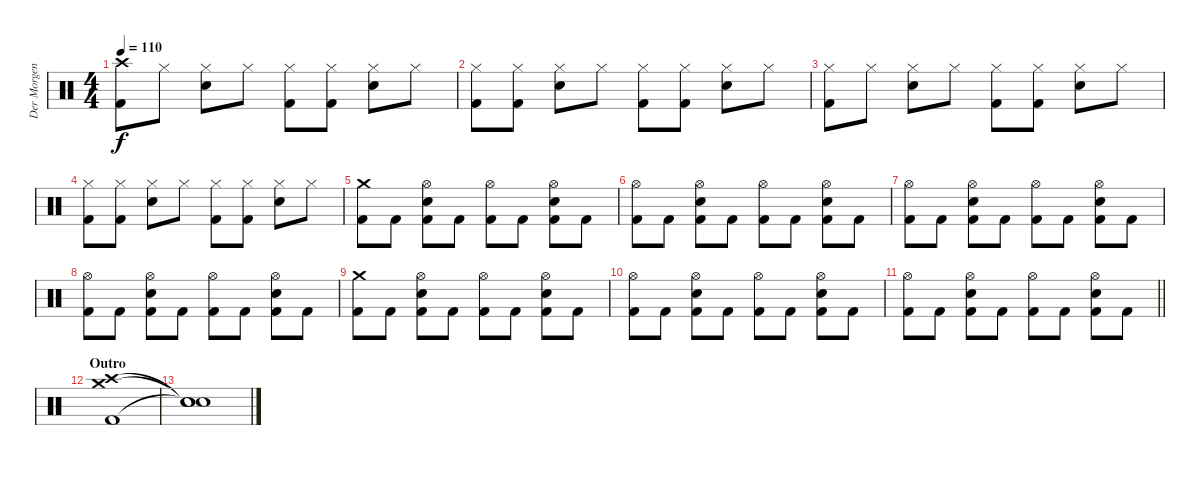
\track ("Der Morgenstern" "Der Morgen") {instrument percussion}
\staff {score}
\articulation defaults
\ts (4 4)
\tempo 110
\clef neutral
\ks c
("Crash high (hit)" "Kick (hit) 2").8{dy f} "Hi-Hat (closed)".8 ("Hi-Hat (closed)" "Snare (hit) 2").8 "Hi-Hat (closed)".8 ("Hi-Hat (closed)" "Kick (hit) 2").8 ("Hi-Hat (closed)" "Kick (hit) 2").8 ("Hi-Hat (closed)" "Snare (hit) 2").8 "Hi-Hat (closed)".8 |
("Hi-Hat (closed)" "Kick (hit) 2").8 ("Hi-Hat (closed)" "Kick (hit) 2").8 ("Hi-Hat (closed)" "Snare (hit) 2").8 "Hi-Hat (closed)".8 ("Hi-Hat (closed)" "Kick (hit) 2").8 ("Hi-Hat (closed)" "Kick (hit) 2").8 ("Hi-Hat (closed)" "Snare (hit) 2").8 "Hi-Hat (closed)".8 |
("Hi-Hat (closed)" "Kick (hit) 2").8 "Hi-Hat (closed)".8 ("Hi-Hat (closed)" "Snare (hit) 2").8 "Hi-Hat (closed)".8 ("Hi-Hat (closed)" "Kick (hit) 2").8 ("Hi-Hat (closed)" "Kick (hit) 2").8 ("Hi-Hat (closed)" "Snare (hit) 2").8 "Hi-Hat (closed)".8 |
("Hi-Hat (closed)" "Kick (hit) 2").8 ("Hi-Hat (closed)" "Kick (hit) 2").8 ("Hi-Hat (closed)" "Snare (hit) 2").8 "Hi-Hat (closed)".8 ("Hi-Hat (closed)" "Kick (hit) 2").8 ("Hi-Hat (closed)" "Kick (hit) 2").8 ("Hi-Hat (closed)" "Snare (hit) 2").8 "Hi-Hat (closed)".8 |
("Crash medium (hit)" "Kick (hit) 2").8 "Kick (hit) 2".8 ("Hi-Hat (open)" "Snare (hit) 2" "Kick (hit) 2").8 "Kick (hit) 2".8 ("Hi-Hat (open)" "Kick (hit) 2").8 "Kick (hit) 2".8 ("Hi-Hat (open)" "Snare (hit) 2" "Kick (hit) 2").8 "Kick (hit) 2".8 |
("Hi-Hat (open)" "Kick (hit) 2").8 "Kick (hit) 2".8 ("Hi-Hat (open)" "Snare (hit) 2" "Kick (hit) 2").8 "Kick (hit) 2".8 ("Hi-Hat (open)" "Kick (hit) 2").8 "Kick (hit) 2".8 ("Hi-Hat (open)" "Snare (hit) 2" "Kick (hit) 2").8 "Kick (hit) 2".8 |
("Hi-Hat (open)" "Kick (hit) 2").8 "Kick (hit) 2".8 ("Hi-Hat (open)" "Snare (hit) 2" "Kick (hit) 2").8 "Kick (hit) 2".8 ("Hi-Hat (open)" "Kick (hit) 2").8 "Kick (hit) 2".8 ("Hi-Hat (open)" "Snare (hit) 2" "Kick (hit) 2").8 "Kick (hit) 2".8 |
("Hi-Hat (open)" "Kick (hit) 2").8 "Kick (hit) 2".8 ("Hi-Hat (open)" "Snare (hit) 2" "Kick (hit) 2").8 "Kick (hit) 2".8 ("Hi-Hat (open)" "Kick (hit) 2").8 "Kick (hit) 2".8 ("Hi-Hat (open)" "Snare (hit) 2" "Kick (hit) 2").8 "Kick (hit) 2".8 |
("Crash medium (hit)" "Kick (hit) 2").8 "Kick (hit) 2".8 ("Hi-Hat (open)" "Snare (hit) 2" "Kick (hit) 2").8 "Kick (hit) 2".8 ("Hi-Hat (open)" "Kick (hit) 2").8 "Kick (hit) 2".8 ("Hi-Hat (open)" "Snare (hit) 2" "Kick (hit) 2").8 "Kick (hit) 2".8 |
("Hi-Hat (open)" "Kick (hit) 2").8 "Kick (hit) 2".8 ("Hi-Hat (open)" "Snare (hit) 2" "Kick (hit) 2").8 "Kick (hit) 2".8 ("Hi-Hat (open)" "Kick (hit) 2").8 "Kick (hit) 2".8 ("Hi-Hat (open)" "Snare (hit) 2" "Kick (hit) 2").8 "Kick (hit) 2".8 |
\barLineRight lightlight
("Hi-Hat (open)" "Kick (hit) 2").8 "Kick (hit) 2".8 ("Hi-Hat (open)" "Snare (hit) 2" "Kick (hit) 2").8 "Kick (hit) 2".8 ("Hi-Hat (open)" "Kick (hit) 2").8 "Kick (hit) 2".8 ("Hi-Hat (open)" "Snare (hit) 2" "Kick (hit) 2").8 "Kick (hit) 2".8 |
\section ("" "Outro")
("Crash high (hit)" "Crash medium (hit)" "Kick (hit) 2").1 |
("Snare (hit)"{t} "Snare (hit)"{t} "Snare (hit)"{t}).1
